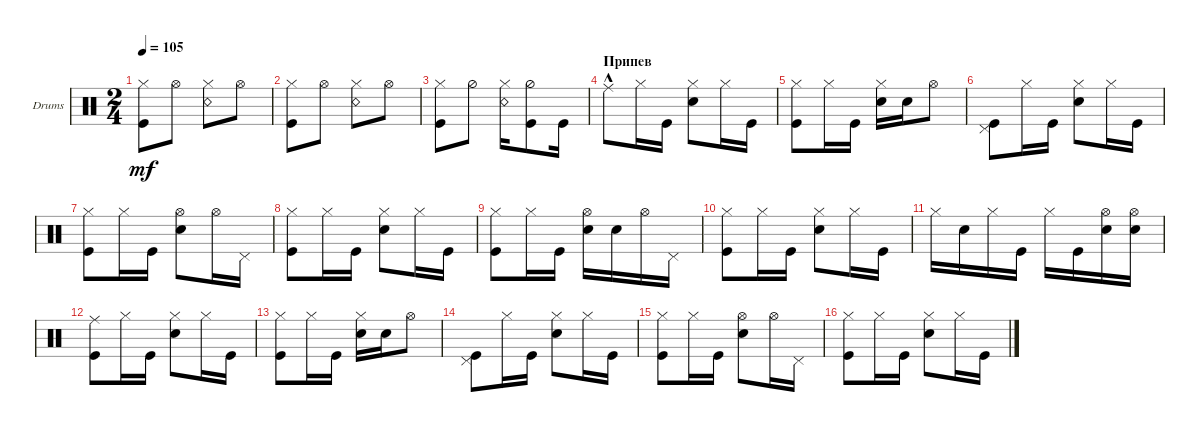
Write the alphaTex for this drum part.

\defaultSystemsLayout 4
\bracketExtendMode groupsimilarinstruments
\firstSystemTrackNameOrientation horizontal
\otherSystemsTrackNameOrientation horizontal
\track ("Drumkit" "Drums") {instrument percussion}
\staff {score}
\articulation defaults
\ts (2 4)
\tempo 105
\clef neutral
\ks c
("Kick (hit)" "Hi-Hat (closed)").8{dy mf} "Hi-Hat (open)".8 ("Hi-Hat (closed)" "Snare (rim shot)").8 "Hi-Hat (open)".8 |
("Kick (hit)" "Hi-Hat (closed)").8 "Hi-Hat (open)".8 ("Hi-Hat (closed)" "Snare (rim shot)").8 "Hi-Hat (open)".8 |
("Hi-Hat (closed)" "Kick (hit)").8 "Hi-Hat (half)".8 ("Snare (rim shot)" "Hi-Hat (closed)").16 ("Kick (hit)" "Hi-Hat (half)").8 "Kick (hit)".16 |
\section ("" "Припев")
"Ride (middle)"{hac}.8 "Hi-Hat (closed)".16 "Kick (hit)".16 ("Hi-Hat (closed)" "Snare (hit) 2").8 "Hi-Hat (closed)".16 "Kick (hit)".16 |
("Hi-Hat (closed)" "Kick (hit)").8 "Hi-Hat (closed)".16 "Kick (hit)".16 ("Hi-Hat (closed)" "Snare (hit) 2").16 "Snare (hit) 2".16 "Hi-Hat (open)".8 |
("Pedal Hi-Hat (hit)" "Kick (hit)").8 "Hi-Hat (closed)".16 "Kick (hit)".16 ("Hi-Hat (closed)" "Snare (hit) 2").8 "Hi-Hat (closed)".16 "Kick (hit)".16 |
("Hi-Hat (closed)" "Kick (hit)").8 "Hi-Hat (closed)".16 "Kick (hit)".16 ("Hi-Hat (open)" "Snare (hit) 2").8 "Hi-Hat (open)".16 "Pedal Hi-Hat (hit)".16 |
("Hi-Hat (closed)" "Kick (hit)").8 "Hi-Hat (closed)".16 "Kick (hit)".16 ("Hi-Hat (closed)" "Snare (hit) 2").8 "Hi-Hat (closed)".16 "Kick (hit)".16 |
("Hi-Hat (closed)" "Kick (hit)").8 "Hi-Hat (closed)".16 "Kick (hit)".16 ("Hi-Hat (open)" "Snare (hit) 2").16 "Snare (hit) 2".16 "Hi-Hat (open)".16 "Pedal Hi-Hat (hit)".16 |
("Hi-Hat (closed)" "Kick (hit)").8 "Hi-Hat (closed)".16 "Kick (hit)".16 ("Hi-Hat (closed)" "Snare (hit) 2").8 "Hi-Hat (closed)".16 "Kick (hit)".16 |
"Hi-Hat (closed)".16 "Snare (hit) 2".16 "Hi-Hat (closed)".16 "Kick (hit)".16 "Hi-Hat (closed)".16 "Kick (hit)".16 ("Hi-Hat (open)" "Snare (hit) 2").16 ("Hi-Hat (open)" "Snare (hit) 2").16 |
("Ride (middle)" "Kick (hit)").8 "Hi-Hat (closed)".16 "Kick (hit)".16 ("Hi-Hat (closed)" "Snare (hit) 2").8 "Hi-Hat (closed)".16 "Kick (hit)".16 |
("Hi-Hat (closed)" "Kick (hit)").8 "Hi-Hat (closed)".16 "Kick (hit)".16 ("Hi-Hat (closed)" "Snare (hit) 2").16 "Snare (hit) 2".16 "Hi-Hat (open)".8 |
("Pedal Hi-Hat (hit)" "Kick (hit)").8 "Hi-Hat (closed)".16 "Kick (hit)".16 ("Hi-Hat (closed)" "Snare (hit) 2").8 "Hi-Hat (closed)".16 "Kick (hit)".16 |
("Hi-Hat (closed)" "Kick (hit)").8 "Hi-Hat (closed)".16 "Kick (hit)".16 ("Hi-Hat (open)" "Snare (hit) 2").8 "Hi-Hat (open)".16 "Pedal Hi-Hat (hit)".16 |
("Hi-Hat (closed)" "Kick (hit)").8 "Hi-Hat (closed)".16 "Kick (hit)".16 ("Hi-Hat (closed)" "Snare (hit) 2").8 "Hi-Hat (closed)".16 "Kick (hit)".16
